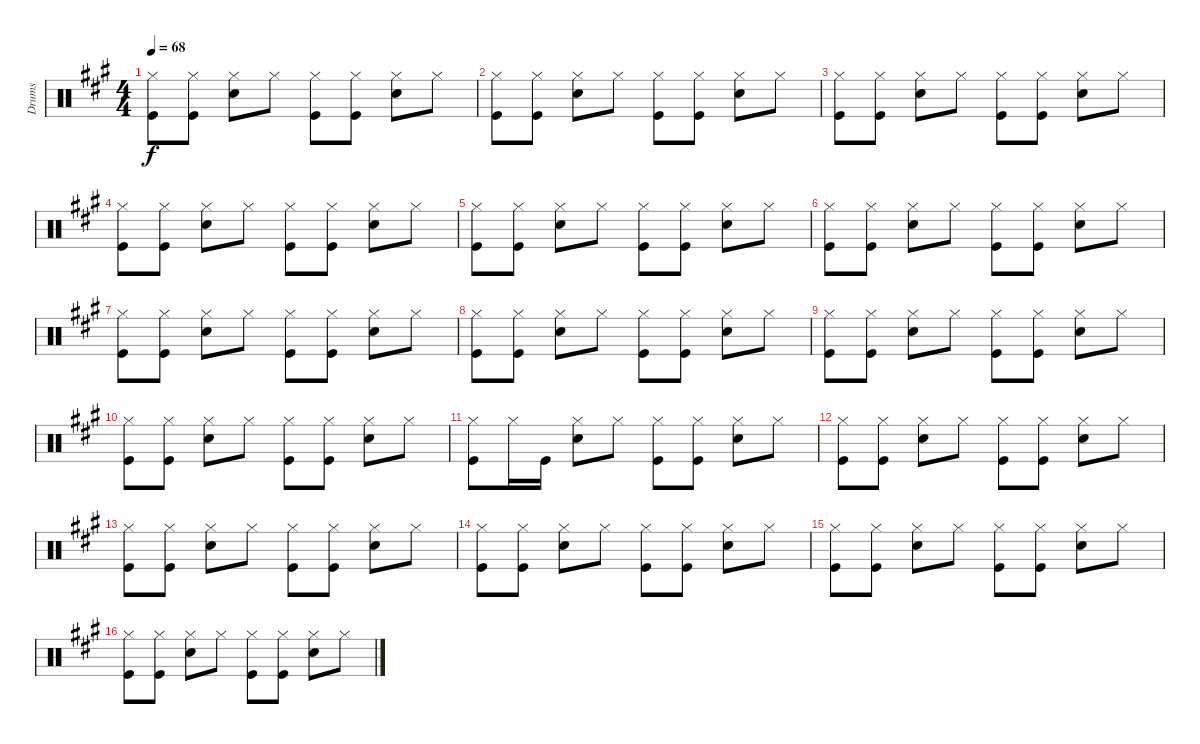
\track ("Drums" "Drums") {instrument percussion}
\staff {score}
\articulation defaults
\ts (4 4)
\tempo 68
\clef neutral
\ks a
("Hi-Hat (closed)" "Kick (hit)").8{dy f} ("Hi-Hat (closed)" "Kick (hit)").8 ("Hi-Hat (closed)" "Electric Snare (hit)").8 "Hi-Hat (closed)".8 ("Hi-Hat (closed)" "Kick (hit)").8 ("Hi-Hat (closed)" "Kick (hit)").8 ("Hi-Hat (closed)" "Electric Snare (hit)").8 "Hi-Hat (closed)".8 |
("Hi-Hat (closed)" "Kick (hit)").8 ("Hi-Hat (closed)" "Kick (hit)").8 ("Hi-Hat (closed)" "Electric Snare (hit)").8 "Hi-Hat (closed)".8 ("Hi-Hat (closed)" "Kick (hit)").8 ("Hi-Hat (closed)" "Kick (hit)").8 ("Hi-Hat (closed)" "Electric Snare (hit)").8 "Hi-Hat (closed)".8 |
("Hi-Hat (closed)" "Kick (hit)").8 ("Hi-Hat (closed)" "Kick (hit)").8 ("Hi-Hat (closed)" "Electric Snare (hit)").8 "Hi-Hat (closed)".8 ("Hi-Hat (closed)" "Kick (hit)").8 ("Hi-Hat (closed)" "Kick (hit)").8 ("Hi-Hat (closed)" "Electric Snare (hit)").8 "Hi-Hat (closed)".8 |
("Hi-Hat (closed)" "Kick (hit)").8 ("Hi-Hat (closed)" "Kick (hit)").8 ("Hi-Hat (closed)" "Electric Snare (hit)").8 "Hi-Hat (closed)".8 ("Hi-Hat (closed)" "Kick (hit)").8 ("Hi-Hat (closed)" "Kick (hit)").8 ("Hi-Hat (closed)" "Electric Snare (hit)").8 "Hi-Hat (closed)".8 |
("Hi-Hat (closed)" "Kick (hit)").8 ("Hi-Hat (closed)" "Kick (hit)").8 ("Hi-Hat (closed)" "Electric Snare (hit)").8 "Hi-Hat (closed)".8 ("Hi-Hat (closed)" "Kick (hit)").8 ("Hi-Hat (closed)" "Kick (hit)").8 ("Hi-Hat (closed)" "Electric Snare (hit)").8 "Hi-Hat (closed)".8 |
("Hi-Hat (closed)" "Kick (hit)").8 ("Hi-Hat (closed)" "Kick (hit)").8 ("Hi-Hat (closed)" "Electric Snare (hit)").8 "Hi-Hat (closed)".8 ("Hi-Hat (closed)" "Kick (hit)").8 ("Hi-Hat (closed)" "Kick (hit)").8 ("Hi-Hat (closed)" "Electric Snare (hit)").8 "Hi-Hat (closed)".8 |
("Hi-Hat (closed)" "Kick (hit)").8 ("Hi-Hat (closed)" "Kick (hit)").8 ("Hi-Hat (closed)" "Electric Snare (hit)").8 "Hi-Hat (closed)".8 ("Hi-Hat (closed)" "Kick (hit)").8 ("Hi-Hat (closed)" "Kick (hit)").8 ("Hi-Hat (closed)" "Electric Snare (hit)").8 "Hi-Hat (closed)".8 |
("Hi-Hat (closed)" "Kick (hit)").8 ("Hi-Hat (closed)" "Kick (hit)").8 ("Hi-Hat (closed)" "Electric Snare (hit)").8 "Hi-Hat (closed)".8 ("Hi-Hat (closed)" "Kick (hit)").8 ("Hi-Hat (closed)" "Kick (hit)").8 ("Hi-Hat (closed)" "Electric Snare (hit)").8 "Hi-Hat (closed)".8 |
("Hi-Hat (closed)" "Kick (hit)").8 ("Hi-Hat (closed)" "Kick (hit)").8 ("Hi-Hat (closed)" "Electric Snare (hit)").8 "Hi-Hat (closed)".8 ("Hi-Hat (closed)" "Kick (hit)").8 ("Hi-Hat (closed)" "Kick (hit)").8 ("Hi-Hat (closed)" "Electric Snare (hit)").8 "Hi-Hat (closed)".8 |
("Hi-Hat (closed)" "Kick (hit)").8 ("Hi-Hat (closed)" "Kick (hit)").8 ("Hi-Hat (closed)" "Electric Snare (hit)").8 "Hi-Hat (closed)".8 ("Hi-Hat (closed)" "Kick (hit)").8 ("Hi-Hat (closed)" "Kick (hit)").8 ("Hi-Hat (closed)" "Electric Snare (hit)").8 "Hi-Hat (closed)".8 |
("Hi-Hat (closed)" "Kick (hit)").8 "Hi-Hat (closed)".16 "Kick (hit)".16 ("Hi-Hat (closed)" "Electric Snare (hit)").8 "Hi-Hat (closed)".8 ("Hi-Hat (closed)" "Kick (hit)").8 ("Hi-Hat (closed)" "Kick (hit)").8 ("Hi-Hat (closed)" "Electric Snare (hit)").8 "Hi-Hat (closed)".8 |
("Hi-Hat (closed)" "Kick (hit)").8 ("Hi-Hat (closed)" "Kick (hit)").8 ("Hi-Hat (closed)" "Electric Snare (hit)").8 "Hi-Hat (closed)".8 ("Hi-Hat (closed)" "Kick (hit)").8 ("Hi-Hat (closed)" "Kick (hit)").8 ("Hi-Hat (closed)" "Electric Snare (hit)").8 "Hi-Hat (closed)".8 |
("Hi-Hat (closed)" "Kick (hit)").8 ("Hi-Hat (closed)" "Kick (hit)").8 ("Hi-Hat (closed)" "Electric Snare (hit)").8 "Hi-Hat (closed)".8 ("Hi-Hat (closed)" "Kick (hit)").8 ("Hi-Hat (closed)" "Kick (hit)").8 ("Hi-Hat (closed)" "Electric Snare (hit)").8 "Hi-Hat (closed)".8 |
("Hi-Hat (closed)" "Kick (hit)").8 ("Hi-Hat (closed)" "Kick (hit)").8 ("Hi-Hat (closed)" "Electric Snare (hit)").8 "Hi-Hat (closed)".8 ("Hi-Hat (closed)" "Kick (hit)").8 ("Hi-Hat (closed)" "Kick (hit)").8 ("Hi-Hat (closed)" "Electric Snare (hit)").8 "Hi-Hat (closed)".8 |
("Hi-Hat (closed)" "Kick (hit)").8 ("Hi-Hat (closed)" "Kick (hit)").8 ("Hi-Hat (closed)" "Electric Snare (hit)").8 "Hi-Hat (closed)".8 ("Hi-Hat (closed)" "Kick (hit)").8 ("Hi-Hat (closed)" "Kick (hit)").8 ("Hi-Hat (closed)" "Electric Snare (hit)").8 "Hi-Hat (closed)".8 |
("Hi-Hat (closed)" "Kick (hit)").8 ("Hi-Hat (closed)" "Kick (hit)").8 ("Hi-Hat (closed)" "Electric Snare (hit)").8 "Hi-Hat (closed)".8 ("Hi-Hat (closed)" "Kick (hit)").8 ("Hi-Hat (closed)" "Kick (hit)").8 ("Hi-Hat (closed)" "Electric Snare (hit)").8 "Hi-Hat (closed)".8
